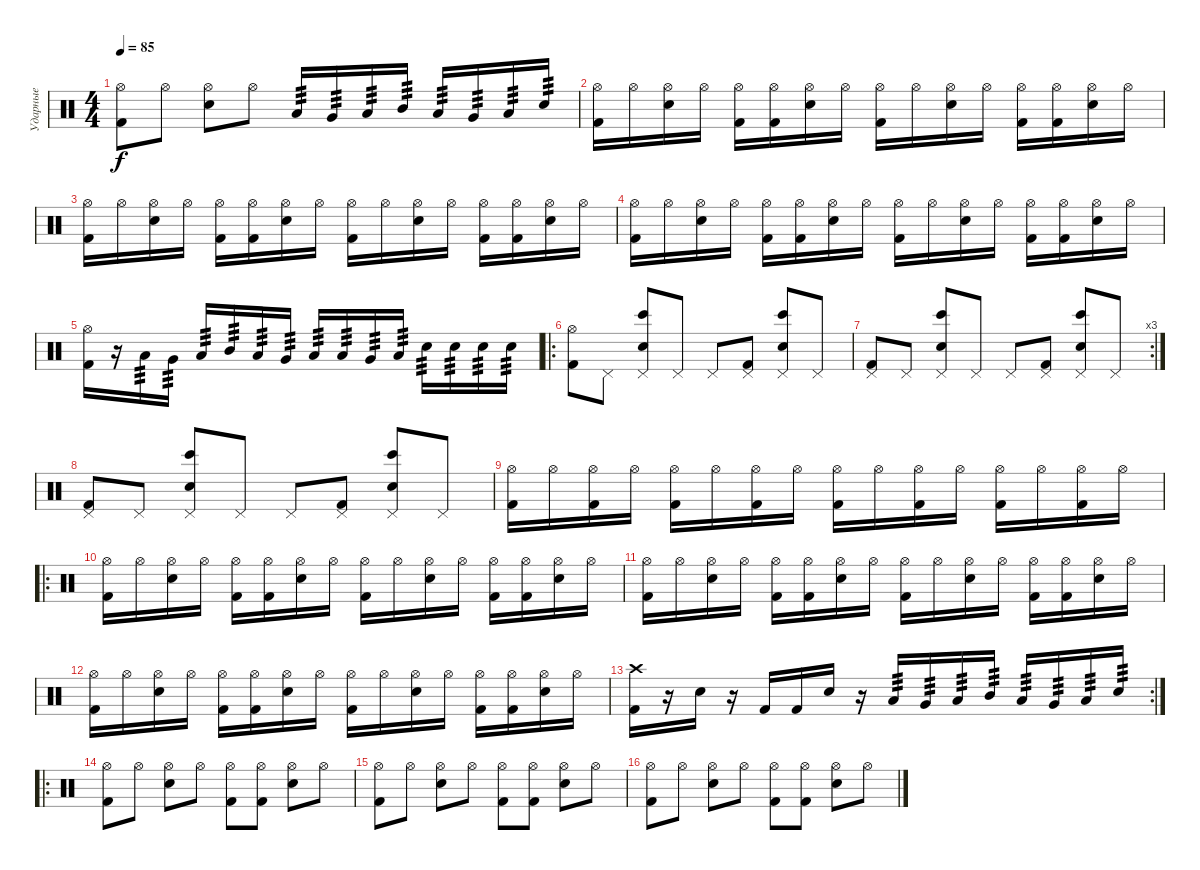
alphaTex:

\track ("Ударные" "Ударные") {instrument percussion}
\staff {score}
\articulation defaults
\ts (4 4)
\tempo 85
\clef neutral
\ks c
("Hi-Hat (open)" "Kick (hit) 2").8{dy f} "Hi-Hat (open)".8 ("Hi-Hat (open)" "Electric Snare (hit)").8 "Hi-Hat (open)".8 "Low Floor Tom (hit)".16{tp 3} "Very Low Tom (hit)".16{tp 3} "Low Tom (hit)".16{tp 3} "Mid Tom (hit)".16{tp 3} "Low Tom (hit)".16{tp 3} "Very Low Tom (hit)".16{tp 3} "Low Floor Tom (hit)".16{tp 3} "Electric Snare (hit)".16{tp 3} |
("Hi-Hat (open)" "Kick (hit) 2").16 "Hi-Hat (open)".16 ("Hi-Hat (open)" "Electric Snare (hit)").16 "Hi-Hat (open)".16 ("Hi-Hat (open)" "Kick (hit) 2").16 ("Hi-Hat (open)" "Kick (hit) 2").16 ("Hi-Hat (open)" "Electric Snare (hit)").16 "Hi-Hat (open)".16 ("Hi-Hat (open)" "Kick (hit) 2").16 "Hi-Hat (open)".16 ("Hi-Hat (open)" "Electric Snare (hit)").16 "Hi-Hat (open)".16 ("Hi-Hat (open)" "Kick (hit) 2").16 ("Hi-Hat (open)" "Kick (hit) 2").16 ("Hi-Hat (open)" "Electric Snare (hit)").16 "Hi-Hat (open)".16 |
("Hi-Hat (open)" "Kick (hit) 2").16 "Hi-Hat (open)".16 ("Hi-Hat (open)" "Electric Snare (hit)").16 "Hi-Hat (open)".16 ("Hi-Hat (open)" "Kick (hit) 2").16 ("Hi-Hat (open)" "Kick (hit) 2").16 ("Hi-Hat (open)" "Electric Snare (hit)").16 "Hi-Hat (open)".16 ("Hi-Hat (open)" "Kick (hit) 2").16 "Hi-Hat (open)".16 ("Hi-Hat (open)" "Electric Snare (hit)").16 "Hi-Hat (open)".16 ("Hi-Hat (open)" "Kick (hit) 2").16 ("Hi-Hat (open)" "Kick (hit) 2").16 ("Hi-Hat (open)" "Electric Snare (hit)").16 "Hi-Hat (open)".16 |
("Hi-Hat (open)" "Kick (hit) 2").16 "Hi-Hat (open)".16 ("Hi-Hat (open)" "Electric Snare (hit)").16 "Hi-Hat (open)".16 ("Hi-Hat (open)" "Kick (hit) 2").16 ("Hi-Hat (open)" "Kick (hit) 2").16 ("Hi-Hat (open)" "Electric Snare (hit)").16 "Hi-Hat (open)".16 ("Hi-Hat (open)" "Kick (hit) 2").16 "Hi-Hat (open)".16 ("Hi-Hat (open)" "Electric Snare (hit)").16 "Hi-Hat (open)".16 ("Hi-Hat (open)" "Kick (hit) 2").16 ("Hi-Hat (open)" "Kick (hit) 2").16 ("Hi-Hat (open)" "Electric Snare (hit)").16 "Hi-Hat (open)".16 |
("Hi-Hat (open)" "Kick (hit) 2").16 r.16 "Low Floor Tom (hit)".16{tp 3} "Very Low Tom (hit)".16{tp 3} "Low Tom (hit)".16{tp 3} "Mid Tom (hit)".16{tp 3} "Low Tom (hit)".16{tp 3} "Very Low Tom (hit)".16{tp 3} "Low Floor Tom (hit)".16{tp 3} "Low Tom (hit)".16{tp 3} "Very Low Tom (hit)".16{tp 3} "Low Floor Tom (hit)".16{tp 3} "Electric Snare (hit)".16{tp 3} "Electric Snare (hit)".16{tp 3} "Electric Snare (hit)".16{tp 3} "Electric Snare (hit)".16{tp 3} |
\ro
("Hi-Hat (open)" "Kick (hit) 2").8 "Pedal Hi-Hat (hit)".8 ("Pedal Hi-Hat (hit)" "Bongo High (hit)" "Snare (hit) 2").8 "Pedal Hi-Hat (hit)".8 "Pedal Hi-Hat (hit)".8 ("Pedal Hi-Hat (hit)" "Kick (hit) 2").8 ("Pedal Hi-Hat (hit)" "Bongo High (hit)" "Snare (hit) 2").8 "Pedal Hi-Hat (hit)".8 |
\rc 3
("Pedal Hi-Hat (hit)" "Kick (hit) 2").8 "Pedal Hi-Hat (hit)".8 ("Pedal Hi-Hat (hit)" "Bongo High (hit)" "Snare (hit) 2").8 "Pedal Hi-Hat (hit)".8 "Pedal Hi-Hat (hit)".8 ("Pedal Hi-Hat (hit)" "Kick (hit) 2").8 ("Pedal Hi-Hat (hit)" "Bongo High (hit)" "Snare (hit) 2").8 "Pedal Hi-Hat (hit)".8 |
("Pedal Hi-Hat (hit)" "Kick (hit) 2").8 "Pedal Hi-Hat (hit)".8 ("Pedal Hi-Hat (hit)" "Bongo High (hit)" "Snare (hit) 2").8 "Pedal Hi-Hat (hit)".8 "Pedal Hi-Hat (hit)".8 ("Pedal Hi-Hat (hit)" "Kick (hit) 2").8 ("Pedal Hi-Hat (hit)" "Bongo High (hit)" "Snare (hit) 2").8 "Pedal Hi-Hat (hit)".8 |
("Hi-Hat (open)" "Kick (hit) 2").16 "Hi-Hat (open)".16 ("Hi-Hat (open)" "Kick (hit) 2").16 "Hi-Hat (open)".16 ("Hi-Hat (open)" "Kick (hit) 2").16 "Hi-Hat (open)".16 ("Hi-Hat (open)" "Kick (hit) 2").16 "Hi-Hat (open)".16 ("Hi-Hat (open)" "Kick (hit) 2").16 "Hi-Hat (open)".16 ("Hi-Hat (open)" "Kick (hit) 2").16 "Hi-Hat (open)".16 ("Hi-Hat (open)" "Kick (hit) 2").16 "Hi-Hat (open)".16 ("Hi-Hat (open)" "Kick (hit) 2").16 "Hi-Hat (open)".16 |
\ro
("Hi-Hat (open)" "Kick (hit) 2").16 "Hi-Hat (open)".16 ("Hi-Hat (open)" "Electric Snare (hit)").16 "Hi-Hat (open)".16 ("Hi-Hat (open)" "Kick (hit) 2").16 ("Hi-Hat (open)" "Kick (hit) 2").16 ("Hi-Hat (open)" "Electric Snare (hit)").16 "Hi-Hat (open)".16 ("Hi-Hat (open)" "Kick (hit) 2").16 "Hi-Hat (open)".16 ("Hi-Hat (open)" "Electric Snare (hit)").16 "Hi-Hat (open)".16 ("Hi-Hat (open)" "Kick (hit) 2").16 ("Hi-Hat (open)" "Kick (hit) 2").16 ("Hi-Hat (open)" "Electric Snare (hit)").16 "Hi-Hat (open)".16 |
("Hi-Hat (open)" "Kick (hit) 2").16 "Hi-Hat (open)".16 ("Hi-Hat (open)" "Electric Snare (hit)").16 "Hi-Hat (open)".16 ("Hi-Hat (open)" "Kick (hit) 2").16 ("Hi-Hat (open)" "Kick (hit) 2").16 ("Hi-Hat (open)" "Electric Snare (hit)").16 "Hi-Hat (open)".16 ("Hi-Hat (open)" "Kick (hit) 2").16 "Hi-Hat (open)".16 ("Hi-Hat (open)" "Electric Snare (hit)").16 "Hi-Hat (open)".16 ("Hi-Hat (open)" "Kick (hit) 2").16 ("Hi-Hat (open)" "Kick (hit) 2").16 ("Hi-Hat (open)" "Electric Snare (hit)").16 "Hi-Hat (open)".16 |
("Hi-Hat (open)" "Kick (hit) 2").16 "Hi-Hat (open)".16 ("Hi-Hat (open)" "Electric Snare (hit)").16 "Hi-Hat (open)".16 ("Hi-Hat (open)" "Kick (hit) 2").16 ("Hi-Hat (open)" "Kick (hit) 2").16 ("Hi-Hat (open)" "Electric Snare (hit)").16 "Hi-Hat (open)".16 ("Hi-Hat (open)" "Kick (hit) 2").16 "Hi-Hat (open)".16 ("Hi-Hat (open)" "Electric Snare (hit)").16 "Hi-Hat (open)".16 ("Hi-Hat (open)" "Kick (hit) 2").16 ("Hi-Hat (open)" "Kick (hit) 2").16 ("Hi-Hat (open)" "Electric Snare (hit)").16 "Hi-Hat (open)".16 |
\rc 2
("Crash high (hit)" "Kick (hit) 2").16 r.16 "Electric Snare (hit)".16 r.16 "Kick (hit) 2".16 "Kick (hit) 2".16 "Electric Snare (hit)".16 r.16 "Low Floor Tom (hit)".16{tp 3} "Very Low Tom (hit)".16{tp 3} "Low Tom (hit)".16{tp 3} "Mid Tom (hit)".16{tp 3} "Low Tom (hit)".16{tp 3} "Very Low Tom (hit)".16{tp 3} "Low Floor Tom (hit)".16{tp 3} "Electric Snare (hit)".16{tp 3} |
\ro
("Hi-Hat (open)" "Kick (hit) 2").8 "Hi-Hat (open)".8 ("Hi-Hat (open)" "Electric Snare (hit)").8 "Hi-Hat (open)".8 ("Hi-Hat (open)" "Kick (hit) 2").8 ("Hi-Hat (open)" "Kick (hit) 2").8 ("Hi-Hat (open)" "Electric Snare (hit)").8 "Hi-Hat (open)".8 |
("Hi-Hat (open)" "Kick (hit) 2").8 "Hi-Hat (open)".8 ("Hi-Hat (open)" "Electric Snare (hit)").8 "Hi-Hat (open)".8 ("Hi-Hat (open)" "Kick (hit) 2").8 ("Hi-Hat (open)" "Kick (hit) 2").8 ("Hi-Hat (open)" "Electric Snare (hit)").8 "Hi-Hat (open)".8 |
("Hi-Hat (open)" "Kick (hit) 2").8 "Hi-Hat (open)".8 ("Hi-Hat (open)" "Electric Snare (hit)").8 "Hi-Hat (open)".8 ("Hi-Hat (open)" "Kick (hit) 2").8 ("Hi-Hat (open)" "Kick (hit) 2").8 ("Hi-Hat (open)" "Electric Snare (hit)").8 "Hi-Hat (open)".8
